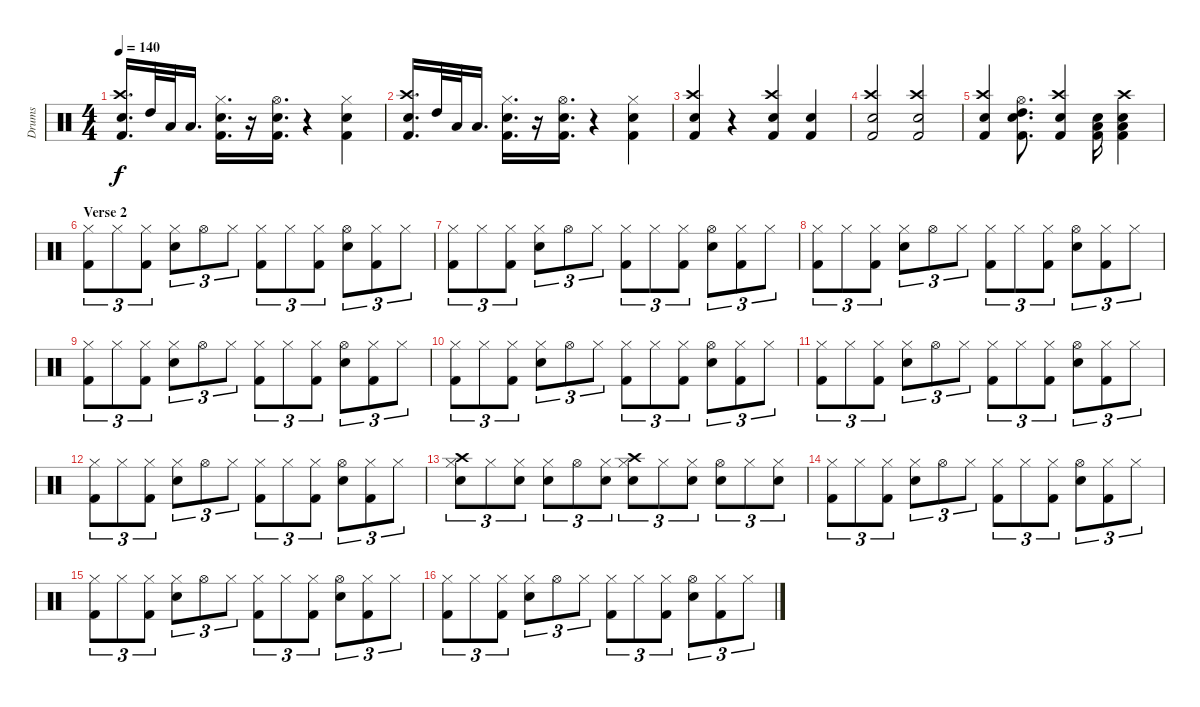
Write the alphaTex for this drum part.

\track ("Drums" "Drums") {instrument percussion}
\staff {score}
\articulation defaults
\ts (4 4)
\tempo 140
\clef neutral
\ks c
("Snare (hit) 2" "Crash high (hit)" "Kick (hit) 2").16{d dy f} "High Tom (hit)".32 "Low Tom (hit)".32 "Low Floor Tom (hit)".16{d} ("Kick (hit) 2" "Snare (hit) 2" "Hi-Hat (closed)").16{d} r.16 ("Snare (hit) 2" "Hi-Hat (open)" "Kick (hit) 2").16{d} r.4 ("Kick (hit) 2" "Snare (hit) 2" "Hi-Hat (closed)").4 |
("Snare (hit) 2" "Crash high (hit)" "Kick (hit) 2").16{d} "High Tom (hit)".32 "Low Tom (hit)".32 "Low Floor Tom (hit)".16{d} ("Kick (hit) 2" "Snare (hit) 2" "Hi-Hat (closed)").16{d} r.16 ("Snare (hit) 2" "Hi-Hat (open)" "Kick (hit) 2").16{d} r.4 ("Kick (hit) 2" "Snare (hit) 2" "Hi-Hat (closed)").4 |
("Snare (hit) 2" "Kick (hit) 2" "Crash high (hit)").4 r.4 ("Snare (hit) 2" "Kick (hit) 2" "Crash high (hit)").4 ("Snare (hit) 2" "Kick (hit) 2").4 |
("Snare (hit) 2" "Kick (hit) 2" "Crash high (hit)").2 ("Snare (hit) 2" "Kick (hit) 2" "Crash high (hit)").2 |
("Snare (hit) 2" "Kick (hit) 2" "Crash high (hit)").4 ("Snare (hit) 2" "High Tom (hit)" "Kick (hit) 2" "Hi-Hat (open)").8{d} ("Snare (hit) 2" "Crash high (hit)" "Kick (hit) 2").4 ("Snare (hit) 2" "Kick (hit) 2" "Low Tom (hit)").16 ("Snare (hit) 2" "Kick (hit) 2" "Crash high (hit)" "Low Tom (hit)").4 |
\section ("" "Verse 2")
("Kick (hit) 2" "Hi-Hat (closed)").8{tu (3 2)} "Hi-Hat (closed)".8{tu (3 2)} ("Kick (hit) 2" "Hi-Hat (closed)").8{tu (3 2)} ("Snare (hit) 2" "Hi-Hat (closed)").8{tu (3 2)} "Hi-Hat (open)".8{tu (3 2)} "Hi-Hat (closed)".8{tu (3 2)} ("Kick (hit) 2" "Hi-Hat (closed)").8{tu (3 2)} "Hi-Hat (closed)".8{tu (3 2)} ("Kick (hit) 2" "Hi-Hat (closed)").8{tu (3 2)} ("Snare (hit) 2" "Hi-Hat (open)").8{tu (3 2)} ("Kick (hit) 2" "Hi-Hat (closed)").8{tu (3 2)} "Hi-Hat (closed)".8{tu (3 2)} |
("Kick (hit) 2" "Hi-Hat (closed)").8{tu (3 2)} "Hi-Hat (closed)".8{tu (3 2)} ("Kick (hit) 2" "Hi-Hat (closed)").8{tu (3 2)} ("Snare (hit) 2" "Hi-Hat (closed)").8{tu (3 2)} "Hi-Hat (open)".8{tu (3 2)} "Hi-Hat (closed)".8{tu (3 2)} ("Kick (hit) 2" "Hi-Hat (closed)").8{tu (3 2)} "Hi-Hat (closed)".8{tu (3 2)} ("Kick (hit) 2" "Hi-Hat (closed)").8{tu (3 2)} ("Snare (hit) 2" "Hi-Hat (open)").8{tu (3 2)} ("Kick (hit) 2" "Hi-Hat (closed)").8{tu (3 2)} "Hi-Hat (closed)".8{tu (3 2)} |
("Kick (hit) 2" "Hi-Hat (closed)").8{tu (3 2)} "Hi-Hat (closed)".8{tu (3 2)} ("Kick (hit) 2" "Hi-Hat (closed)").8{tu (3 2)} ("Snare (hit) 2" "Hi-Hat (closed)").8{tu (3 2)} "Hi-Hat (open)".8{tu (3 2)} "Hi-Hat (closed)".8{tu (3 2)} ("Kick (hit) 2" "Hi-Hat (closed)").8{tu (3 2)} "Hi-Hat (closed)".8{tu (3 2)} ("Kick (hit) 2" "Hi-Hat (closed)").8{tu (3 2)} ("Snare (hit) 2" "Hi-Hat (open)").8{tu (3 2)} ("Kick (hit) 2" "Hi-Hat (closed)").8{tu (3 2)} "Hi-Hat (closed)".8{tu (3 2)} |
("Kick (hit) 2" "Hi-Hat (closed)").8{tu (3 2)} "Hi-Hat (closed)".8{tu (3 2)} ("Kick (hit) 2" "Hi-Hat (closed)").8{tu (3 2)} ("Snare (hit) 2" "Hi-Hat (closed)").8{tu (3 2)} "Hi-Hat (open)".8{tu (3 2)} "Hi-Hat (closed)".8{tu (3 2)} ("Kick (hit) 2" "Hi-Hat (closed)").8{tu (3 2)} "Hi-Hat (closed)".8{tu (3 2)} ("Kick (hit) 2" "Hi-Hat (closed)").8{tu (3 2)} ("Snare (hit) 2" "Hi-Hat (open)").8{tu (3 2)} ("Kick (hit) 2" "Hi-Hat (closed)").8{tu (3 2)} "Hi-Hat (closed)".8{tu (3 2)} |
("Kick (hit) 2" "Hi-Hat (closed)").8{tu (3 2)} "Hi-Hat (closed)".8{tu (3 2)} ("Kick (hit) 2" "Hi-Hat (closed)").8{tu (3 2)} ("Snare (hit) 2" "Hi-Hat (closed)").8{tu (3 2)} "Hi-Hat (open)".8{tu (3 2)} "Hi-Hat (closed)".8{tu (3 2)} ("Kick (hit) 2" "Hi-Hat (closed)").8{tu (3 2)} "Hi-Hat (closed)".8{tu (3 2)} ("Kick (hit) 2" "Hi-Hat (closed)").8{tu (3 2)} ("Snare (hit) 2" "Hi-Hat (open)").8{tu (3 2)} ("Kick (hit) 2" "Hi-Hat (closed)").8{tu (3 2)} "Hi-Hat (closed)".8{tu (3 2)} |
("Kick (hit) 2" "Hi-Hat (closed)").8{tu (3 2)} "Hi-Hat (closed)".8{tu (3 2)} ("Kick (hit) 2" "Hi-Hat (closed)").8{tu (3 2)} ("Snare (hit) 2" "Hi-Hat (closed)").8{tu (3 2)} "Hi-Hat (open)".8{tu (3 2)} "Hi-Hat (closed)".8{tu (3 2)} ("Kick (hit) 2" "Hi-Hat (closed)").8{tu (3 2)} "Hi-Hat (closed)".8{tu (3 2)} ("Kick (hit) 2" "Hi-Hat (closed)").8{tu (3 2)} ("Snare (hit) 2" "Hi-Hat (open)").8{tu (3 2)} ("Kick (hit) 2" "Hi-Hat (closed)").8{tu (3 2)} "Hi-Hat (closed)".8{tu (3 2)} |
("Kick (hit) 2" "Hi-Hat (closed)").8{tu (3 2)} "Hi-Hat (closed)".8{tu (3 2)} ("Kick (hit) 2" "Hi-Hat (closed)").8{tu (3 2)} ("Snare (hit) 2" "Hi-Hat (closed)").8{tu (3 2)} "Hi-Hat (open)".8{tu (3 2)} "Hi-Hat (closed)".8{tu (3 2)} ("Kick (hit) 2" "Hi-Hat (closed)").8{tu (3 2)} "Hi-Hat (closed)".8{tu (3 2)} ("Kick (hit) 2" "Hi-Hat (closed)").8{tu (3 2)} ("Snare (hit) 2" "Hi-Hat (open)").8{tu (3 2)} ("Kick (hit) 2" "Hi-Hat (closed)").8{tu (3 2)} "Hi-Hat (closed)".8{tu (3 2)} |
("Snare (hit) 2" "Hi-Hat (closed)" "Crash high (hit)").8{tu (3 2)} "Hi-Hat (closed)".8{tu (3 2)} ("Snare (hit) 2" "Hi-Hat (closed)").8{tu (3 2)} ("Snare (hit) 2" "Hi-Hat (closed)").8{tu (3 2)} "Hi-Hat (open)".8{tu (3 2)} ("Snare (hit) 2" "Hi-Hat (closed)").8{tu (3 2)} ("Snare (hit) 2" "Hi-Hat (closed)" "Crash high (hit)").8{tu (3 2)} "Hi-Hat (closed)".8{tu (3 2)} ("Snare (hit) 2" "Hi-Hat (closed)").8{tu (3 2)} ("Snare (hit) 2" "Hi-Hat (open)").8{tu (3 2)} "Hi-Hat (closed)".8{tu (3 2)} ("Snare (hit) 2" "Hi-Hat (closed)").8{tu (3 2)} |
("Kick (hit) 2" "Hi-Hat (closed)").8{tu (3 2)} "Hi-Hat (closed)".8{tu (3 2)} ("Kick (hit) 2" "Hi-Hat (closed)").8{tu (3 2)} ("Snare (hit) 2" "Hi-Hat (closed)").8{tu (3 2)} "Hi-Hat (open)".8{tu (3 2)} "Hi-Hat (closed)".8{tu (3 2)} ("Kick (hit) 2" "Hi-Hat (closed)").8{tu (3 2)} "Hi-Hat (closed)".8{tu (3 2)} ("Kick (hit) 2" "Hi-Hat (closed)").8{tu (3 2)} ("Snare (hit) 2" "Hi-Hat (open)").8{tu (3 2)} ("Kick (hit) 2" "Hi-Hat (closed)").8{tu (3 2)} "Hi-Hat (closed)".8{tu (3 2)} |
("Kick (hit) 2" "Hi-Hat (closed)").8{tu (3 2)} "Hi-Hat (closed)".8{tu (3 2)} ("Kick (hit) 2" "Hi-Hat (closed)").8{tu (3 2)} ("Snare (hit) 2" "Hi-Hat (closed)").8{tu (3 2)} "Hi-Hat (open)".8{tu (3 2)} "Hi-Hat (closed)".8{tu (3 2)} ("Kick (hit) 2" "Hi-Hat (closed)").8{tu (3 2)} "Hi-Hat (closed)".8{tu (3 2)} ("Kick (hit) 2" "Hi-Hat (closed)").8{tu (3 2)} ("Snare (hit) 2" "Hi-Hat (open)").8{tu (3 2)} ("Kick (hit) 2" "Hi-Hat (closed)").8{tu (3 2)} "Hi-Hat (closed)".8{tu (3 2)} |
("Kick (hit) 2" "Hi-Hat (closed)").8{tu (3 2)} "Hi-Hat (closed)".8{tu (3 2)} ("Kick (hit) 2" "Hi-Hat (closed)").8{tu (3 2)} ("Snare (hit) 2" "Hi-Hat (closed)").8{tu (3 2)} "Hi-Hat (open)".8{tu (3 2)} "Hi-Hat (closed)".8{tu (3 2)} ("Kick (hit) 2" "Hi-Hat (closed)").8{tu (3 2)} "Hi-Hat (closed)".8{tu (3 2)} ("Kick (hit) 2" "Hi-Hat (closed)").8{tu (3 2)} ("Snare (hit) 2" "Hi-Hat (open)").8{tu (3 2)} ("Kick (hit) 2" "Hi-Hat (closed)").8{tu (3 2)} "Hi-Hat (closed)".8{tu (3 2)}
